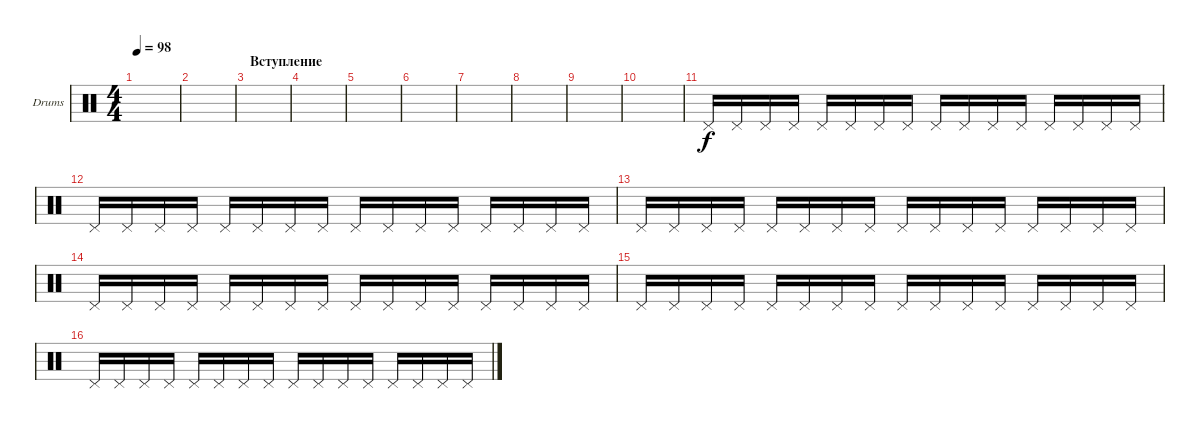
\defaultSystemsLayout 4
\bracketExtendMode groupsimilarinstruments
\firstSystemTrackNameOrientation horizontal
\otherSystemsTrackNameOrientation horizontal
\track ("Е. Кулаков" "Drums") {instrument percussion}
\staff {score}
\articulation defaults
\ts (4 4)
\tempo 98
\clef neutral
\scale
0.474178
\ks c
|
\scale
0.262911 |
\section ("" "Вступление")
\scale
0.262911 |
\scale
0.333333 |
\scale
0.333333 |
\scale
0.333333 |
\scale
0.333333 |
\scale
0.333333 |
\scale
0.333333 |
\scale
0.333333 |
\scale
0.333333 "Pedal Hi-Hat (hit)".16 "Pedal Hi-Hat (hit)".16 "Pedal Hi-Hat (hit)".16 "Pedal Hi-Hat (hit)".16 "Pedal Hi-Hat (hit)".16 "Pedal Hi-Hat (hit)".16 "Pedal Hi-Hat (hit)".16 "Pedal Hi-Hat (hit)".16 "Pedal Hi-Hat (hit)".16 "Pedal Hi-Hat (hit)".16 "Pedal Hi-Hat (hit)".16 "Pedal Hi-Hat (hit)".16 "Pedal Hi-Hat (hit)".16 "Pedal Hi-Hat (hit)".16 "Pedal Hi-Hat (hit)".16 "Pedal Hi-Hat (hit)".16 |
\scale
0.333333 "Pedal Hi-Hat (hit)".16 "Pedal Hi-Hat (hit)".16 "Pedal Hi-Hat (hit)".16 "Pedal Hi-Hat (hit)".16 "Pedal Hi-Hat (hit)".16 "Pedal Hi-Hat (hit)".16 "Pedal Hi-Hat (hit)".16 "Pedal Hi-Hat (hit)".16 "Pedal Hi-Hat (hit)".16 "Pedal Hi-Hat (hit)".16 "Pedal Hi-Hat (hit)".16 "Pedal Hi-Hat (hit)".16 "Pedal Hi-Hat (hit)".16 "Pedal Hi-Hat (hit)".16 "Pedal Hi-Hat (hit)".16 "Pedal Hi-Hat (hit)".16 |
\scale
0.333333 "Pedal Hi-Hat (hit)".16 "Pedal Hi-Hat (hit)".16 "Pedal Hi-Hat (hit)".16 "Pedal Hi-Hat (hit)".16 "Pedal Hi-Hat (hit)".16 "Pedal Hi-Hat (hit)".16 "Pedal Hi-Hat (hit)".16 "Pedal Hi-Hat (hit)".16 "Pedal Hi-Hat (hit)".16 "Pedal Hi-Hat (hit)".16 "Pedal Hi-Hat (hit)".16 "Pedal Hi-Hat (hit)".16 "Pedal Hi-Hat (hit)".16 "Pedal Hi-Hat (hit)".16 "Pedal Hi-Hat (hit)".16 "Pedal Hi-Hat (hit)".16 |
\scale
0.333333 "Pedal Hi-Hat (hit)".16 "Pedal Hi-Hat (hit)".16 "Pedal Hi-Hat (hit)".16 "Pedal Hi-Hat (hit)".16 "Pedal Hi-Hat (hit)".16 "Pedal Hi-Hat (hit)".16 "Pedal Hi-Hat (hit)".16 "Pedal Hi-Hat (hit)".16 "Pedal Hi-Hat (hit)".16 "Pedal Hi-Hat (hit)".16 "Pedal Hi-Hat (hit)".16 "Pedal Hi-Hat (hit)".16 "Pedal Hi-Hat (hit)".16 "Pedal Hi-Hat (hit)".16 "Pedal Hi-Hat (hit)".16 "Pedal Hi-Hat (hit)".16 |
\scale
0.333333 "Pedal Hi-Hat (hit)".16 "Pedal Hi-Hat (hit)".16 "Pedal Hi-Hat (hit)".16 "Pedal Hi-Hat (hit)".16 "Pedal Hi-Hat (hit)".16 "Pedal Hi-Hat (hit)".16 "Pedal Hi-Hat (hit)".16 "Pedal Hi-Hat (hit)".16 "Pedal Hi-Hat (hit)".16 "Pedal Hi-Hat (hit)".16 "Pedal Hi-Hat (hit)".16 "Pedal Hi-Hat (hit)".16 "Pedal Hi-Hat (hit)".16 "Pedal Hi-Hat (hit)".16 "Pedal Hi-Hat (hit)".16 "Pedal Hi-Hat (hit)".16 |
\scale
0.333333 "Pedal Hi-Hat (hit)".16 "Pedal Hi-Hat (hit)".16 "Pedal Hi-Hat (hit)".16 "Pedal Hi-Hat (hit)".16 "Pedal Hi-Hat (hit)".16 "Pedal Hi-Hat (hit)".16 "Pedal Hi-Hat (hit)".16 "Pedal Hi-Hat (hit)".16 "Pedal Hi-Hat (hit)".16 "Pedal Hi-Hat (hit)".16 "Pedal Hi-Hat (hit)".16 "Pedal Hi-Hat (hit)".16 "Pedal Hi-Hat (hit)".16 "Pedal Hi-Hat (hit)".16 "Pedal Hi-Hat (hit)".16 "Pedal Hi-Hat (hit)".16
